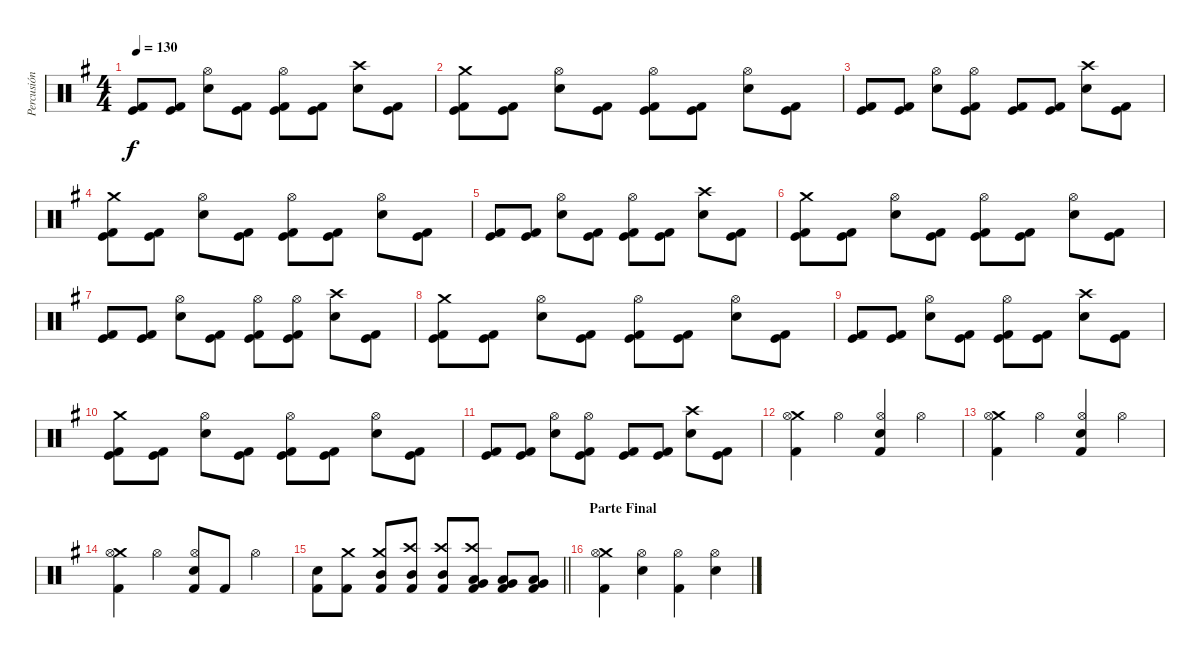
\track ("Percusión" "Percusión") {instrument percussion}
\staff {score}
\articulation defaults
\ts (4 4)
\tempo 130
\clef neutral
\ks g
("Kick (hit)" "Kick (hit) 2").8{dy f} ("Kick (hit)" "Kick (hit) 2").8 ("Hi-Hat (open)" "Electric Snare (hit)").8 ("Kick (hit)" "Kick (hit) 2").8 ("Hi-Hat (open)" "Kick (hit)" "Kick (hit) 2").8 ("Kick (hit)" "Kick (hit) 2").8 ("Crash high (hit)" "Electric Snare (hit)").8 ("Kick (hit)" "Kick (hit) 2").8 |
("Crash medium (hit)" "Kick (hit)" "Kick (hit) 2").8 ("Kick (hit)" "Kick (hit) 2").8 ("Hi-Hat (open)" "Electric Snare (hit)").8 ("Kick (hit)" "Kick (hit) 2").8 ("Hi-Hat (open)" "Kick (hit)" "Kick (hit) 2").8 ("Kick (hit)" "Kick (hit) 2").8 ("Hi-Hat (open)" "Electric Snare (hit)").8 ("Kick (hit)" "Kick (hit) 2").8 |
("Kick (hit)" "Kick (hit) 2").8 ("Kick (hit)" "Kick (hit) 2").8 ("Hi-Hat (open)" "Electric Snare (hit)").8 ("Hi-Hat (open)" "Kick (hit)" "Kick (hit) 2").8 ("Kick (hit)" "Kick (hit) 2").8 ("Kick (hit)" "Kick (hit) 2").8 ("Crash high (hit)" "Electric Snare (hit)").8 ("Kick (hit)" "Kick (hit) 2").8 |
("Crash medium (hit)" "Kick (hit)" "Kick (hit) 2").8 ("Kick (hit)" "Kick (hit) 2").8 ("Hi-Hat (open)" "Electric Snare (hit)").8 ("Kick (hit)" "Kick (hit) 2").8 ("Hi-Hat (open)" "Kick (hit)" "Kick (hit) 2").8 ("Kick (hit)" "Kick (hit) 2").8 ("Hi-Hat (open)" "Electric Snare (hit)").8 ("Kick (hit)" "Kick (hit) 2").8 |
("Kick (hit)" "Kick (hit) 2").8 ("Kick (hit)" "Kick (hit) 2").8 ("Hi-Hat (open)" "Electric Snare (hit)").8 ("Kick (hit)" "Kick (hit) 2").8 ("Hi-Hat (open)" "Kick (hit)" "Kick (hit) 2").8 ("Kick (hit)" "Kick (hit) 2").8 ("Crash high (hit)" "Electric Snare (hit)").8 ("Kick (hit)" "Kick (hit) 2").8 |
("Crash medium (hit)" "Kick (hit)" "Kick (hit) 2").8 ("Kick (hit)" "Kick (hit) 2").8 ("Hi-Hat (open)" "Electric Snare (hit)").8 ("Kick (hit)" "Kick (hit) 2").8 ("Hi-Hat (open)" "Kick (hit)" "Kick (hit) 2").8 ("Kick (hit)" "Kick (hit) 2").8 ("Hi-Hat (open)" "Electric Snare (hit)").8 ("Kick (hit)" "Kick (hit) 2").8 |
("Kick (hit)" "Kick (hit) 2").8 ("Kick (hit)" "Kick (hit) 2").8 ("Hi-Hat (open)" "Electric Snare (hit)").8 ("Kick (hit)" "Kick (hit) 2").8 ("Hi-Hat (open)" "Kick (hit)" "Kick (hit) 2").8 ("Hi-Hat (open)" "Kick (hit)" "Kick (hit) 2").8 ("Crash high (hit)" "Electric Snare (hit)").8 ("Kick (hit)" "Kick (hit) 2").8 |
("Crash medium (hit)" "Kick (hit)" "Kick (hit) 2").8 ("Kick (hit)" "Kick (hit) 2").8 ("Hi-Hat (open)" "Electric Snare (hit)").8 ("Kick (hit)" "Kick (hit) 2").8 ("Hi-Hat (open)" "Kick (hit)" "Kick (hit) 2").8 ("Kick (hit)" "Kick (hit) 2").8 ("Hi-Hat (open)" "Electric Snare (hit)").8 ("Kick (hit)" "Kick (hit) 2").8 |
("Kick (hit)" "Kick (hit) 2").8 ("Kick (hit)" "Kick (hit) 2").8 ("Hi-Hat (open)" "Electric Snare (hit)").8 ("Kick (hit)" "Kick (hit) 2").8 ("Hi-Hat (open)" "Kick (hit)" "Kick (hit) 2").8 ("Kick (hit)" "Kick (hit) 2").8 ("Crash high (hit)" "Electric Snare (hit)").8 ("Kick (hit)" "Kick (hit) 2").8 |
("Crash medium (hit)" "Kick (hit)" "Kick (hit) 2").8 ("Kick (hit)" "Kick (hit) 2").8 ("Hi-Hat (open)" "Electric Snare (hit)").8 ("Kick (hit)" "Kick (hit) 2").8 ("Hi-Hat (open)" "Kick (hit)" "Kick (hit) 2").8 ("Kick (hit)" "Kick (hit) 2").8 ("Hi-Hat (open)" "Electric Snare (hit)").8 ("Kick (hit)" "Kick (hit) 2").8 |
("Kick (hit)" "Kick (hit) 2").8 ("Kick (hit)" "Kick (hit) 2").8 ("Hi-Hat (open)" "Electric Snare (hit)").8 ("Hi-Hat (open)" "Kick (hit)" "Kick (hit) 2").8 ("Kick (hit)" "Kick (hit) 2").8 ("Kick (hit)" "Kick (hit) 2").8 ("Crash high (hit)" "Electric Snare (hit)").8 ("Kick (hit)" "Kick (hit) 2").8 |
("Crash medium (hit)" "Hi-Hat (open)" "Kick (hit) 2").4 "Hi-Hat (open)".4 ("Hi-Hat (open)" "Electric Snare (hit)" "Kick (hit) 2").4 "Hi-Hat (open)".4 |
("Crash medium (hit)" "Hi-Hat (open)" "Kick (hit) 2").4 "Hi-Hat (open)".4 ("Hi-Hat (open)" "Electric Snare (hit)" "Kick (hit) 2").4 "Hi-Hat (open)".4 |
("Crash medium (hit)" "Hi-Hat (open)" "Kick (hit) 2").4 "Hi-Hat (open)".4 ("Hi-Hat (open)" "Electric Snare (hit)" "Kick (hit) 2").8 "Kick (hit) 2".8 "Hi-Hat (open)".4 |
\barLineRight lightlight
("Electric Snare (hit)" "Kick (hit) 2").8 ("Crash medium (hit)" "Kick (hit) 2").8 ("Crash medium (hit)" "Mid Tom (hit)" "Kick (hit) 2").8 ("Crash high (hit)" "Mid Tom (hit)" "Kick (hit) 2").8 ("Crash high (hit)" "Mid Tom (hit)" "Kick (hit) 2").8 ("Crash high (hit)" "Low Tom (hit)" "Very Low Tom (hit)" "Kick (hit) 2").8 ("Low Tom (hit)" "Very Low Tom (hit)" "Kick (hit) 2").8 ("Low Tom (hit)" "Very Low Tom (hit)" "Kick (hit) 2").8 |
\section ("" "Parte Final")
("Crash medium (hit)" "Hi-Hat (open)" "Kick (hit) 2").4 ("Hi-Hat (open)" "Electric Snare (hit)").4 ("Hi-Hat (open)" "Kick (hit) 2").4 ("Hi-Hat (open)" "Electric Snare (hit)").4
